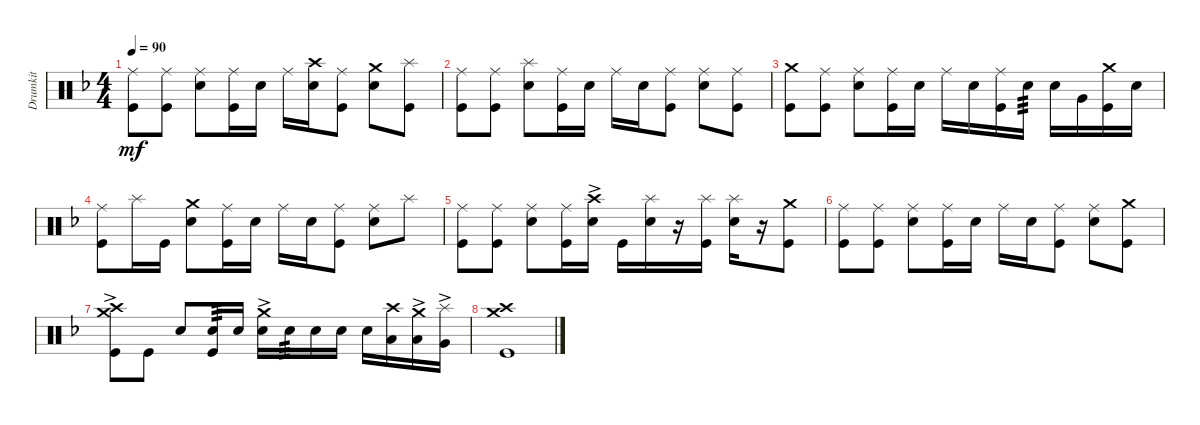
\track ("Drumkit" "Drumkit") {instrument percussion}
\staff {score}
\articulation defaults
\ts (4 4)
\tempo 90
\clef neutral
\ks f
("Kick (hit)" "Ride (middle)").8{dy mf} ("Kick (hit)" "Ride (middle)").8 ("Snare (hit) 2" "Ride (middle)").8 ("Kick (hit)" "Ride (middle)").16 "Snare (hit) 2".16 "Ride (middle)".16 ("Snare (hit) 2" "Crash high (hit)").16 ("Kick (hit)" "Ride (middle)").8 ("Snare (hit) 2" "Crash medium (hit)").8 ("Kick (hit)" "Splash (hit)").8 |
("Kick (hit)" "Ride (middle)").8 ("Kick (hit)" "Ride (middle)").8 ("Snare (hit) 2" "Splash (hit)").8 ("Kick (hit)" "Ride (middle)").16 "Snare (hit) 2".16 "Ride (middle)".16 "Snare (hit) 2".16 ("Kick (hit)" "Ride (middle)").8 ("Snare (hit) 2" "Ride (middle)").8 ("Kick (hit)" "Ride (middle)").8 |
("Kick (hit)" "Crash medium (hit)").8 ("Kick (hit)" "Ride (middle)").8 ("Snare (hit) 2" "Ride (middle)").8 ("Kick (hit)" "Ride (middle)").16 "Snare (hit) 2".16 "Ride (middle)".16 "Snare (hit) 2".16 ("Kick (hit)" "Ride (middle)").16 "Snare (hit) 2".16{tp 3} "Snare (hit) 2".16 "Very Low Tom (hit)".16 ("Kick (hit)" "Crash medium (hit)").16 "Snare (hit) 2".16 |
("Kick (hit)" "Ride (middle)").8 "Splash (hit)".16 "Kick (hit)".16 ("Snare (hit) 2" "Crash medium (hit)").8 ("Kick (hit)" "Ride (middle)").16 "Snare (hit) 2".16 "Ride (middle)".16 "Snare (hit) 2".16 ("Kick (hit)" "Ride (middle)").8 ("Snare (hit) 2" "Ride (middle)").8 "Splash (hit)".8 |
("Kick (hit)" "Ride (middle)").8 ("Kick (hit)" "Ride (middle)").8 ("Snare (hit) 2" "Ride (middle)").8 ("Kick (hit)" "Ride (middle)").16 ("Snare (hit) 2" "Crash high (hit)"{ac}).16 "Kick (hit)".16 ("Snare (hit) 2" "Splash (hit)").16 r.16 ("Splash (hit)" "Kick (hit)").16 ("Snare (hit) 2" "Splash (hit)").16 r.16 ("Kick (hit)" "Crash medium (hit)").8 |
("Kick (hit)" "Ride (middle)").8 ("Kick (hit)" "Ride (middle)").8 ("Snare (hit) 2" "Ride (middle)").8 ("Kick (hit)" "Ride (middle)").16 "Snare (hit) 2".16 "Ride (middle)".16 "Snare (hit) 2".16 ("Kick (hit)" "Ride (middle)").8 ("Snare (hit) 2" "Ride (middle)").8 ("Kick (hit)" "Crash medium (hit)").8 |
("Kick (hit)" "Crash medium (hit)"{ac} "Crash high (hit)").8 "Kick (hit)".8 "Snare (hit) 2".8 ("Snare (hit) 2" "Kick (hit)").16{tp 3} "Snare (hit) 2".16 ("Snare (hit) 2" "Crash medium (hit)"{ac}).16 "Snare (hit) 2".16{tp 3} "Snare (hit) 2".16 "Snare (hit) 2".16 "Snare (hit) 2".16 ("Crash high (hit)" "Low Tom (hit)").16 ("Crash medium (hit)"{ac} "Low Tom (hit)").16 ("Splash (hit)"{ac} "Very Low Tom (hit)").16 |
("Crash medium (hit)" "Crash high (hit)" "Kick (hit)").1
